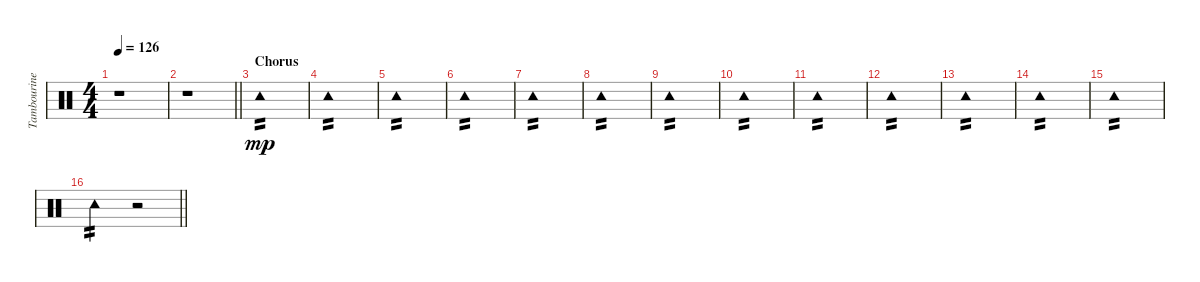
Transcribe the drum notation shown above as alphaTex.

\track ("Tambourine" "Tambourine") {instrument percussion}
\staff {score}
\articulation defaults
\ts (4 4)
\tempo 126
\clef neutral
\ks c
r.1{dy mp} |
\barLineRight lightlight
r.1 |
\section ("" "Chorus")
"Tambourine (hit)".1{tp 2} |
"Tambourine (hit)".1{tp 2} |
"Tambourine (hit)".1{tp 2} |
"Tambourine (hit)".1{tp 2} |
"Tambourine (hit)".1{tp 2} |
"Tambourine (hit)".1{tp 2} |
"Tambourine (hit)".1{tp 2} |
"Tambourine (hit)".1{tp 2} |
"Tambourine (hit)".1{tp 2} |
"Tambourine (hit)".1{tp 2} |
"Tambourine (hit)".1{tp 2} |
"Tambourine (hit)".1{tp 2} |
"Tambourine (hit)".1{tp 2} |
\barLineRight lightlight "Tambourine (hit)".2{tp 2}
r.2
